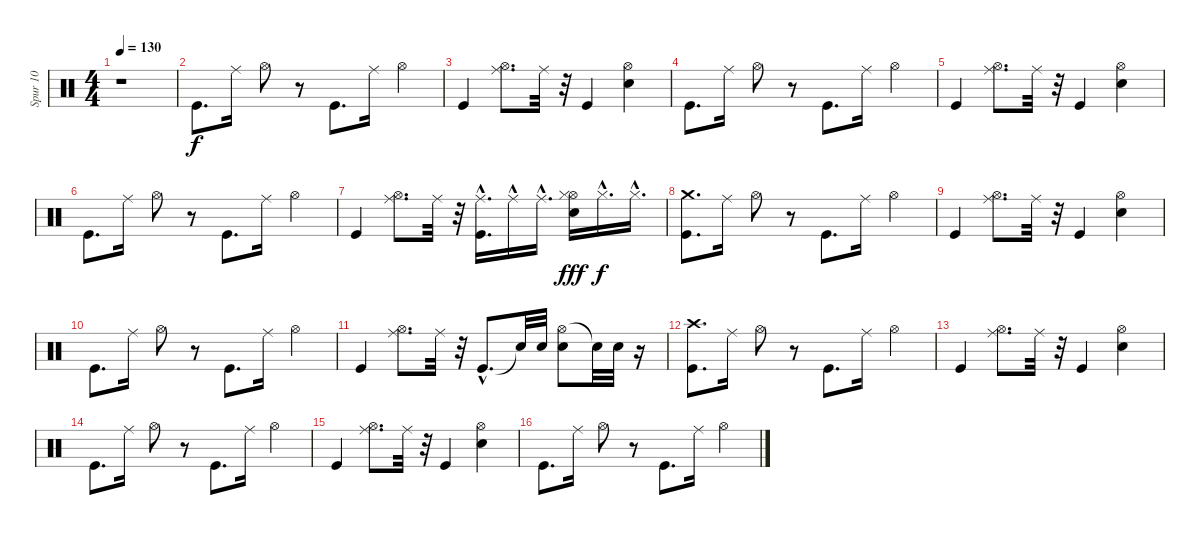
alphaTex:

\track ("Spur 10" "Spur 10") {instrument percussion}
\staff {score}
\articulation defaults
\ts (4 4)
\tempo 130
\clef neutral
\ks c
r.1{dy f} |
"Kick (hit)".8{d} "Ride (middle)".16 "Hi-Hat (open)".8 r.8 "Kick (hit)".8{d} "Ride (middle)".16 "Hi-Hat (open)".4 |
"Kick (hit)".4 ("Hi-Hat (open)" "Ride (middle)").8{d} "Ride (middle)".32 r.32 "Kick (hit)".4 ("Hi-Hat (open)" "Electric Snare (hit)").4 |
"Kick (hit)".8{d} "Ride (middle)".16 "Hi-Hat (open)".8 r.8 "Kick (hit)".8{d} "Ride (middle)".16 "Hi-Hat (open)".4 |
"Kick (hit)".4 ("Hi-Hat (open)" "Ride (middle)").8{d} "Ride (middle)".32 r.32 "Kick (hit)".4 ("Hi-Hat (open)" "Electric Snare (hit)").4 |
"Kick (hit)".8{d} "Ride (middle)".16 "Hi-Hat (open)".8 r.8 "Kick (hit)".8{d} "Ride (middle)".16 "Hi-Hat (open)".4 |
"Kick (hit)".4 ("Hi-Hat (open)" "Ride (middle)").8{d} "Ride (middle)".32 r.32 ("Kick (hit)" "Ride (middle)"{hac}).16{d} "Ride (middle)"{hac}.16 "Ride (middle)"{hac}.16{d} ("Hi-Hat (open)" "Hi-Hat (closed)" "Electric Snare (hit)").16{dy fff} "Hi-Hat (closed)"{hac}.16{d dy f} "Hi-Hat (closed)"{hac}.16{d} |
("Kick (hit)" "Crash medium (hit)").8{d} "Ride (middle)".16 "Hi-Hat (open)".8 r.8 "Kick (hit)".8{d} "Ride (middle)".16 "Hi-Hat (open)".4 |
"Kick (hit)".4 ("Hi-Hat (open)" "Ride (middle)").8{d} "Ride (middle)".32 r.32 "Kick (hit)".4 ("Hi-Hat (open)" "Electric Snare (hit)").4 |
"Kick (hit)".8{d} "Ride (middle)".16 "Hi-Hat (open)".8 r.8 "Kick (hit)".8{d} "Ride (middle)".16 "Hi-Hat (open)".4 |
"Kick (hit)".4 ("Hi-Hat (open)" "Ride (middle)").8{d} "Ride (middle)".32 r.32 "Kick (hit)"{hac}.8{d} "Snare (hit)"{t}.32 "Electric Snare (hit)".32 ("Hi-Hat (open)" "Electric Snare (hit)").8 "Snare (hit)"{t}.32 "Electric Snare (hit)".32 r.16 |
("Crash high (hit)" "Kick (hit)").8{d} "Ride (middle)".16 "Hi-Hat (open)".8 r.8 "Kick (hit)".8{d} "Ride (middle)".16 "Hi-Hat (open)".4 |
"Kick (hit)".4 ("Hi-Hat (open)" "Ride (middle)").8{d} "Ride (middle)".32 r.32 "Kick (hit)".4 ("Hi-Hat (open)" "Electric Snare (hit)").4 |
"Kick (hit)".8{d} "Ride (middle)".16 "Hi-Hat (open)".8 r.8 "Kick (hit)".8{d} "Ride (middle)".16 "Hi-Hat (open)".4 |
"Kick (hit)".4 ("Hi-Hat (open)" "Ride (middle)").8{d} "Ride (middle)".32 r.32 "Kick (hit)".4 ("Hi-Hat (open)" "Electric Snare (hit)").4 |
"Kick (hit)".8{d} "Ride (middle)".16 "Hi-Hat (open)".8 r.8 "Kick (hit)".8{d} "Ride (middle)".16 "Hi-Hat (open)".4
